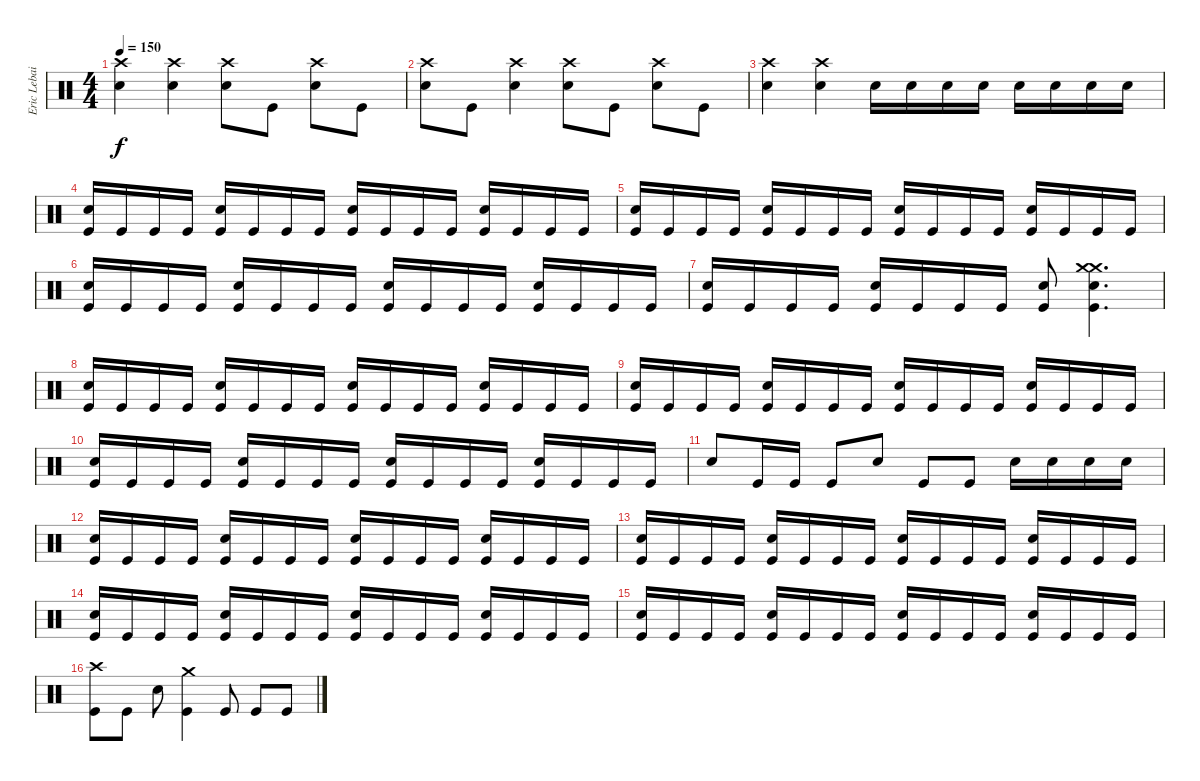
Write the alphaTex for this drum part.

\track ("Eric Lebailly - Drums" "Eric Lebai") {instrument percussion}
\staff {score}
\articulation defaults
\ts (4 4)
\tempo 150
\clef neutral
\ks c
("Crash high (hit)" "Snare (hit) 2").4{dy f} ("Crash high (hit)" "Snare (hit) 2").4 ("Crash high (hit)" "Snare (hit) 2").8 "Kick (hit)".8 ("Crash high (hit)" "Snare (hit) 2").8 "Kick (hit)".8 |
("Crash high (hit)" "Snare (hit) 2").8 "Kick (hit)".8 ("Crash high (hit)" "Snare (hit) 2").4 ("Crash high (hit)" "Snare (hit) 2").8 "Kick (hit)".8 ("Crash high (hit)" "Snare (hit) 2").8 "Kick (hit)".8 |
("Crash high (hit)" "Snare (hit) 2").4 ("Crash high (hit)" "Snare (hit) 2").4 "Snare (hit) 2".16 "Snare (hit) 2".16 "Snare (hit) 2".16 "Snare (hit) 2".16 "Snare (hit) 2".16 "Snare (hit) 2".16 "Snare (hit) 2".16 "Snare (hit) 2".16 |
("Snare (hit) 2" "Kick (hit)").16 "Kick (hit)".16 "Kick (hit)".16 "Kick (hit)".16 ("Snare (hit) 2" "Kick (hit)").16 "Kick (hit)".16 "Kick (hit)".16 "Kick (hit)".16 ("Snare (hit) 2" "Kick (hit)").16 "Kick (hit)".16 "Kick (hit)".16 "Kick (hit)".16 ("Snare (hit) 2" "Kick (hit)").16 "Kick (hit)".16 "Kick (hit)".16 "Kick (hit)".16 |
("Snare (hit) 2" "Kick (hit)").16 "Kick (hit)".16 "Kick (hit)".16 "Kick (hit)".16 ("Snare (hit) 2" "Kick (hit)").16 "Kick (hit)".16 "Kick (hit)".16 "Kick (hit)".16 ("Snare (hit) 2" "Kick (hit)").16 "Kick (hit)".16 "Kick (hit)".16 "Kick (hit)".16 ("Snare (hit) 2" "Kick (hit)").16 "Kick (hit)".16 "Kick (hit)".16 "Kick (hit)".16 |
("Snare (hit) 2" "Kick (hit)").16 "Kick (hit)".16 "Kick (hit)".16 "Kick (hit)".16 ("Snare (hit) 2" "Kick (hit)").16 "Kick (hit)".16 "Kick (hit)".16 "Kick (hit)".16 ("Snare (hit) 2" "Kick (hit)").16 "Kick (hit)".16 "Kick (hit)".16 "Kick (hit)".16 ("Snare (hit) 2" "Kick (hit)").16 "Kick (hit)".16 "Kick (hit)".16 "Kick (hit)".16 |
("Snare (hit) 2" "Kick (hit)").16 "Kick (hit)".16 "Kick (hit)".16 "Kick (hit)".16 ("Snare (hit) 2" "Kick (hit)").16 "Kick (hit)".16 "Kick (hit)".16 "Kick (hit)".16 ("Snare (hit) 2" "Kick (hit)").8 ("Crash medium (hit)" "Crash medium (hit)" "Snare (hit) 2" "Kick (hit)").4{d} |
("Snare (hit) 2" "Kick (hit)").16 "Kick (hit)".16 "Kick (hit)".16 "Kick (hit)".16 ("Snare (hit) 2" "Kick (hit)").16 "Kick (hit)".16 "Kick (hit)".16 "Kick (hit)".16 ("Snare (hit) 2" "Kick (hit)").16 "Kick (hit)".16 "Kick (hit)".16 "Kick (hit)".16 ("Snare (hit) 2" "Kick (hit)").16 "Kick (hit)".16 "Kick (hit)".16 "Kick (hit)".16 |
("Snare (hit) 2" "Kick (hit)").16 "Kick (hit)".16 "Kick (hit)".16 "Kick (hit)".16 ("Snare (hit) 2" "Kick (hit)").16 "Kick (hit)".16 "Kick (hit)".16 "Kick (hit)".16 ("Snare (hit) 2" "Kick (hit)").16 "Kick (hit)".16 "Kick (hit)".16 "Kick (hit)".16 ("Snare (hit) 2" "Kick (hit)").16 "Kick (hit)".16 "Kick (hit)".16 "Kick (hit)".16 |
("Snare (hit) 2" "Kick (hit)").16 "Kick (hit)".16 "Kick (hit)".16 "Kick (hit)".16 ("Snare (hit) 2" "Kick (hit)").16 "Kick (hit)".16 "Kick (hit)".16 "Kick (hit)".16 ("Snare (hit) 2" "Kick (hit)").16 "Kick (hit)".16 "Kick (hit)".16 "Kick (hit)".16 ("Snare (hit) 2" "Kick (hit)").16 "Kick (hit)".16 "Kick (hit)".16 "Kick (hit)".16 |
"Snare (hit) 2".8 "Kick (hit)".16 "Kick (hit)".16 "Kick (hit)".8 "Snare (hit) 2".8 "Kick (hit)".8 "Kick (hit)".8 "Snare (hit) 2".16 "Snare (hit) 2".16 "Snare (hit) 2".16 "Snare (hit) 2".16 |
("Snare (hit) 2" "Kick (hit)").16 "Kick (hit)".16 "Kick (hit)".16 "Kick (hit)".16 ("Snare (hit) 2" "Kick (hit)").16 "Kick (hit)".16 "Kick (hit)".16 "Kick (hit)".16 ("Snare (hit) 2" "Kick (hit)").16 "Kick (hit)".16 "Kick (hit)".16 "Kick (hit)".16 ("Snare (hit) 2" "Kick (hit)").16 "Kick (hit)".16 "Kick (hit)".16 "Kick (hit)".16 |
("Snare (hit) 2" "Kick (hit)").16 "Kick (hit)".16 "Kick (hit)".16 "Kick (hit)".16 ("Snare (hit) 2" "Kick (hit)").16 "Kick (hit)".16 "Kick (hit)".16 "Kick (hit)".16 ("Snare (hit) 2" "Kick (hit)").16 "Kick (hit)".16 "Kick (hit)".16 "Kick (hit)".16 ("Snare (hit) 2" "Kick (hit)").16 "Kick (hit)".16 "Kick (hit)".16 "Kick (hit)".16 |
("Snare (hit) 2" "Kick (hit)").16 "Kick (hit)".16 "Kick (hit)".16 "Kick (hit)".16 ("Snare (hit) 2" "Kick (hit)").16 "Kick (hit)".16 "Kick (hit)".16 "Kick (hit)".16 ("Snare (hit) 2" "Kick (hit)").16 "Kick (hit)".16 "Kick (hit)".16 "Kick (hit)".16 ("Snare (hit) 2" "Kick (hit)").16 "Kick (hit)".16 "Kick (hit)".16 "Kick (hit)".16 |
("Snare (hit) 2" "Kick (hit)").16 "Kick (hit)".16 "Kick (hit)".16 "Kick (hit)".16 ("Snare (hit) 2" "Kick (hit)").16 "Kick (hit)".16 "Kick (hit)".16 "Kick (hit)".16 ("Snare (hit) 2" "Kick (hit)").16 "Kick (hit)".16 "Kick (hit)".16 "Kick (hit)".16 ("Snare (hit) 2" "Kick (hit)").16 "Kick (hit)".16 "Kick (hit)".16 "Kick (hit)".16 |
("Crash high (hit)" "Kick (hit)").8 "Kick (hit)".8 "Snare (hit) 2".8 ("Crash medium (hit)" "Kick (hit)").4 "Kick (hit)".8 "Kick (hit)".8 "Kick (hit)".8
